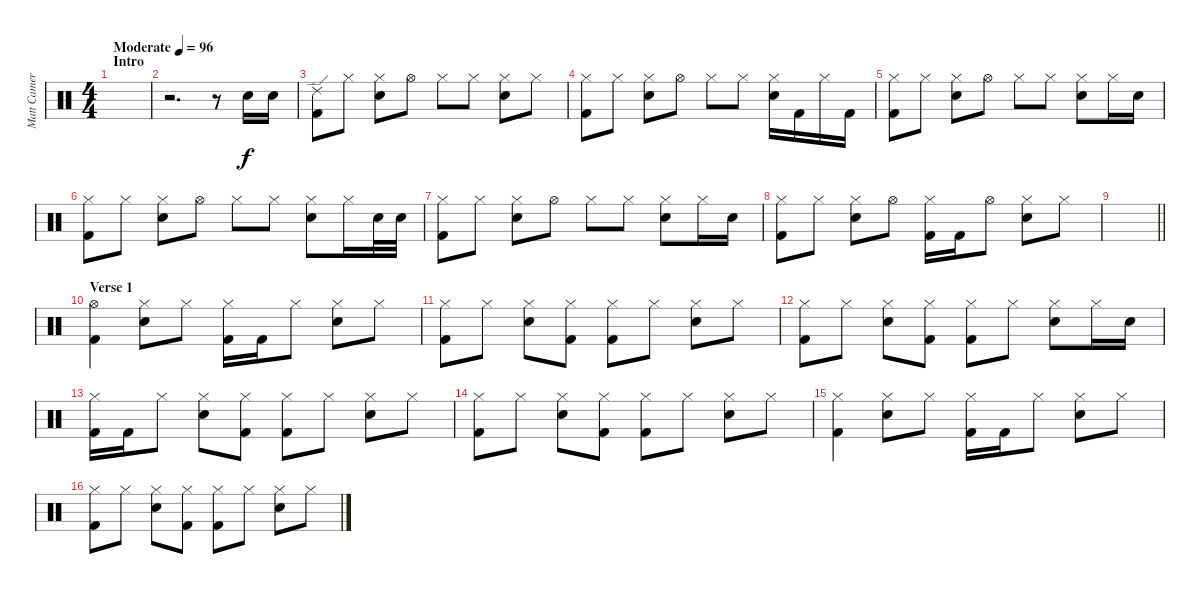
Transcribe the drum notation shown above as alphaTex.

\track ("Matt Cameron" "Matt Camer") {instrument percussion}
\staff {score}
\articulation defaults
\ts (4 4)
\section ("" "Intro")
\tempo (96 "Moderate")
\clef neutral
\ks c
|
r.2{d} r.8 "Electric Snare (hit)".16 "Electric Snare (hit)".16 |
("Ride (edge) 2" "Kick (hit) 2").8 "Hi-Hat (closed)".8 ("Hi-Hat (closed)" "Electric Snare (hit)").8 "Hi-Hat (open)".8 "Hi-Hat (closed)".8 "Hi-Hat (closed)".8 ("Hi-Hat (closed)" "Electric Snare (hit)").8 "Hi-Hat (closed)".8 |
("Hi-Hat (closed)" "Kick (hit) 2").8 "Hi-Hat (closed)".8 ("Hi-Hat (closed)" "Electric Snare (hit)").8 "Hi-Hat (open)".8 "Hi-Hat (closed)".8 "Hi-Hat (closed)".8 ("Hi-Hat (closed)" "Electric Snare (hit)").16 "Kick (hit) 2".16 "Hi-Hat (closed)".16 "Kick (hit) 2".16 |
("Hi-Hat (closed)" "Kick (hit) 2").8 "Hi-Hat (closed)".8 ("Hi-Hat (closed)" "Electric Snare (hit)").8 "Hi-Hat (open)".8 "Hi-Hat (closed)".8 "Hi-Hat (closed)".8 ("Hi-Hat (closed)" "Electric Snare (hit)").8 "Hi-Hat (closed)".16 "Electric Snare (hit)".16 |
("Hi-Hat (closed)" "Kick (hit) 2").8 "Hi-Hat (closed)".8 ("Hi-Hat (closed)" "Electric Snare (hit)").8 "Hi-Hat (open)".8 "Hi-Hat (closed)".8 "Hi-Hat (closed)".8 ("Hi-Hat (closed)" "Electric Snare (hit)").8 "Hi-Hat (closed)".16 "Electric Snare (hit)".32 "Electric Snare (hit)".32 |
("Hi-Hat (closed)" "Kick (hit) 2").8 "Hi-Hat (closed)".8 ("Hi-Hat (closed)" "Electric Snare (hit)").8 "Hi-Hat (open)".8 "Hi-Hat (closed)".8 "Hi-Hat (closed)".8 ("Hi-Hat (closed)" "Electric Snare (hit)").8 "Hi-Hat (closed)".16 "Electric Snare (hit)".16 |
("Hi-Hat (closed)" "Kick (hit) 2").8 "Hi-Hat (closed)".8 ("Hi-Hat (closed)" "Electric Snare (hit)").8 "Hi-Hat (open)".8 ("Hi-Hat (closed)" "Kick (hit) 2").16 "Kick (hit) 2".16 "Hi-Hat (open)".8 ("Hi-Hat (closed)" "Electric Snare (hit)").8 "Hi-Hat (closed)".8 |
\barLineRight lightlight
|
\section ("" "Verse 1")
("Hi-Hat (open)" "Kick (hit) 2").4 ("Hi-Hat (closed)" "Electric Snare (hit)").8 "Hi-Hat (closed)".8 ("Hi-Hat (closed)" "Kick (hit) 2").16 "Kick (hit) 2".16 "Hi-Hat (closed)".8 ("Hi-Hat (closed)" "Electric Snare (hit)").8 "Hi-Hat (closed)".8 |
("Hi-Hat (closed)" "Kick (hit) 2").8 "Hi-Hat (closed)".8 ("Hi-Hat (closed)" "Electric Snare (hit)").8 ("Hi-Hat (closed)" "Kick (hit) 2").8 ("Hi-Hat (closed)" "Kick (hit) 2").8 "Hi-Hat (closed)".8 ("Hi-Hat (closed)" "Electric Snare (hit)").8 "Hi-Hat (closed)".8 |
("Hi-Hat (closed)" "Kick (hit) 2").8 "Hi-Hat (closed)".8 ("Hi-Hat (closed)" "Electric Snare (hit)").8 ("Hi-Hat (closed)" "Kick (hit) 2").8 ("Hi-Hat (closed)" "Kick (hit) 2").8 "Hi-Hat (closed)".8 ("Hi-Hat (closed)" "Electric Snare (hit)").8 "Hi-Hat (closed)".16 "Electric Snare (hit)".16 |
("Hi-Hat (closed)" "Kick (hit) 2").16 "Kick (hit) 2".16 "Hi-Hat (closed)".8 ("Hi-Hat (closed)" "Electric Snare (hit)").8 ("Hi-Hat (closed)" "Kick (hit) 2").8 ("Hi-Hat (closed)" "Kick (hit) 2").8 "Hi-Hat (closed)".8 ("Hi-Hat (closed)" "Electric Snare (hit)").8 "Hi-Hat (closed)".8 |
("Hi-Hat (closed)" "Kick (hit) 2").8 "Hi-Hat (closed)".8 ("Hi-Hat (closed)" "Electric Snare (hit)").8 ("Hi-Hat (closed)" "Kick (hit) 2").8 ("Hi-Hat (closed)" "Kick (hit) 2").8 "Hi-Hat (closed)".8 ("Hi-Hat (closed)" "Electric Snare (hit)").8 "Hi-Hat (closed)".8 |
("Hi-Hat (closed)" "Kick (hit) 2").4 ("Hi-Hat (closed)" "Electric Snare (hit)").8 "Hi-Hat (closed)".8 ("Hi-Hat (closed)" "Kick (hit) 2").16 "Kick (hit) 2".16 "Hi-Hat (closed)".8 ("Hi-Hat (closed)" "Electric Snare (hit)").8 "Hi-Hat (closed)".8 |
("Hi-Hat (closed)" "Kick (hit) 2").8 "Hi-Hat (closed)".8 ("Hi-Hat (closed)" "Electric Snare (hit)").8 ("Hi-Hat (closed)" "Kick (hit) 2").8 ("Hi-Hat (closed)" "Kick (hit) 2").8 "Hi-Hat (closed)".8 ("Hi-Hat (closed)" "Electric Snare (hit)").8 "Hi-Hat (closed)".8
